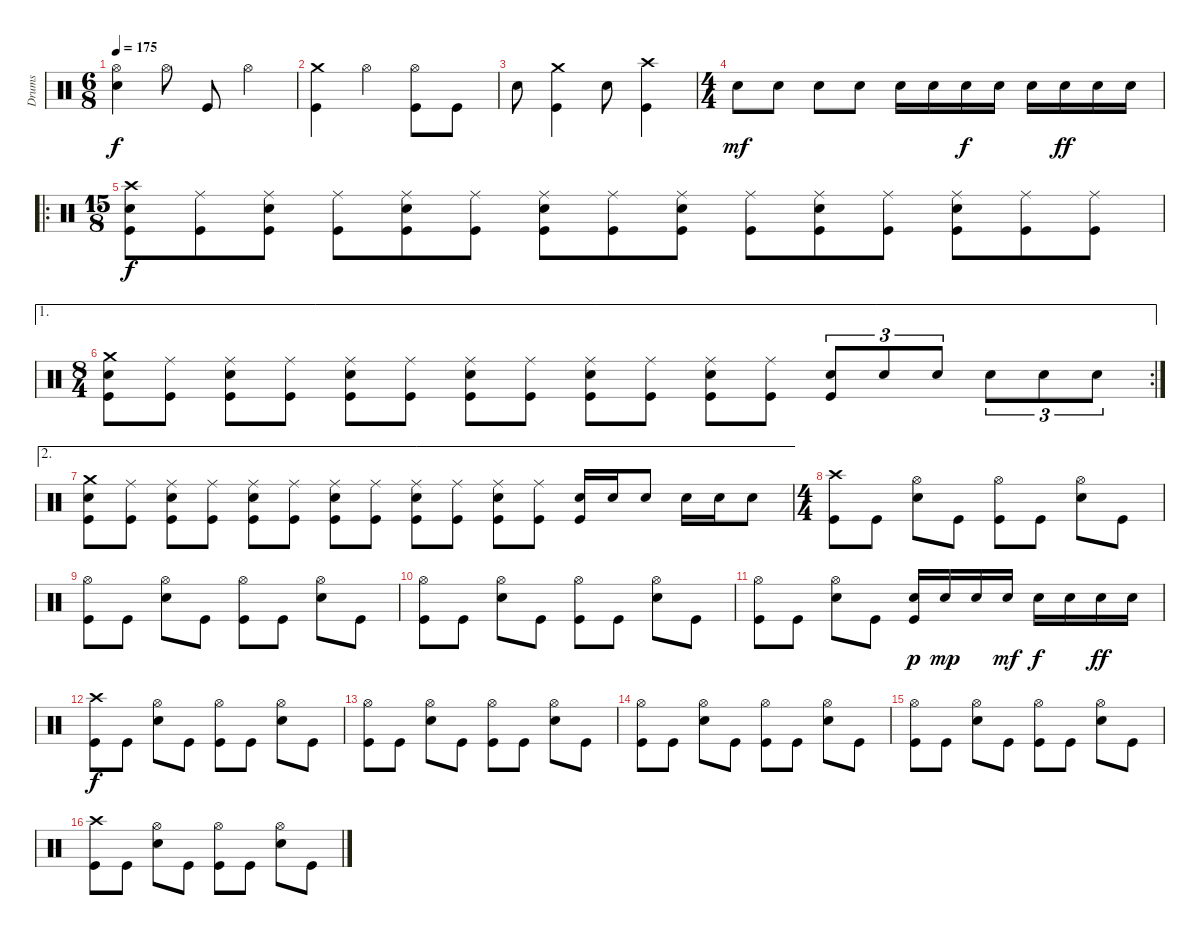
\track ("Drums" "Drums") {instrument percussion}
\staff {score}
\articulation defaults
\ts (6 8)
\tempo 175
\clef neutral
\ks c
("Hi-Hat (open)" "Electric Snare (hit)").4{dy f} "Hi-Hat (open)".8 "Kick (hit)".8 "Hi-Hat (open)".4 |
("Crash medium (hit)" "Kick (hit)").4 "Hi-Hat (open)".4 ("Hi-Hat (open)" "Kick (hit)").8 "Kick (hit)".8 |
"Electric Snare (hit)".8 ("Crash medium (hit)" "Kick (hit)").4 "Electric Snare (hit)".8 ("Crash high (hit)" "Kick (hit)").4 |
\ts (4 4)
"Electric Snare (hit)".8{dy mf} "Electric Snare (hit)".8 "Electric Snare (hit)".8 "Electric Snare (hit)".8 "Electric Snare (hit)".16 "Electric Snare (hit)".16 "Electric Snare (hit)".16{dy f} "Electric Snare (hit)".16 "Electric Snare (hit)".16 "Electric Snare (hit)".16{dy ff} "Electric Snare (hit)".16 "Electric Snare (hit)".16 |
\ro
\ts (15 8)
("Crash high (hit)" "Electric Snare (hit)" "Kick (hit)").8{dy f} ("Ride (middle)" "Kick (hit)").8 ("Ride (middle)" "Electric Snare (hit)" "Kick (hit)").8 ("Ride (middle)" "Kick (hit)").8 ("Ride (middle)" "Electric Snare (hit)" "Kick (hit)").8 ("Ride (middle)" "Kick (hit)").8 ("Ride (middle)" "Electric Snare (hit)" "Kick (hit)").8 ("Ride (middle)" "Kick (hit)").8 ("Ride (middle)" "Electric Snare (hit)" "Kick (hit)").8 ("Ride (middle)" "Kick (hit)").8 ("Ride (middle)" "Electric Snare (hit)" "Kick (hit)").8 ("Ride (middle)" "Kick (hit)").8 ("Ride (middle)" "Electric Snare (hit)" "Kick (hit)").8 ("Ride (middle)" "Kick (hit)").8 ("Ride (middle)" "Kick (hit)").8 |
\ae 1
\rc 2
\ts (8 4)
("Crash medium (hit)" "Electric Snare (hit)" "Kick (hit)").8 ("Ride (middle)" "Kick (hit)").8 ("Ride (middle)" "Electric Snare (hit)" "Kick (hit)").8 ("Ride (middle)" "Kick (hit)").8 ("Ride (middle)" "Electric Snare (hit)" "Kick (hit)").8 ("Ride (middle)" "Kick (hit)").8 ("Ride (middle)" "Electric Snare (hit)" "Kick (hit)").8 ("Ride (middle)" "Kick (hit)").8 ("Ride (middle)" "Electric Snare (hit)" "Kick (hit)").8 ("Ride (middle)" "Kick (hit)").8 ("Ride (middle)" "Electric Snare (hit)" "Kick (hit)").8 ("Ride (middle)" "Kick (hit)").8 ("Electric Snare (hit)" "Kick (hit)").8{tu (3 2)} "Electric Snare (hit)".8{tu (3 2)} "Electric Snare (hit)".8{tu (3 2)} "Electric Snare (hit)".8{tu (3 2)} "Electric Snare (hit)".8{tu (3 2)} "Electric Snare (hit)".8{tu (3 2)} |
\ae 2
("Crash medium (hit)" "Electric Snare (hit)" "Kick (hit)").8 ("Ride (middle)" "Kick (hit)").8 ("Ride (middle)" "Electric Snare (hit)" "Kick (hit)").8 ("Ride (middle)" "Kick (hit)").8 ("Ride (middle)" "Electric Snare (hit)" "Kick (hit)").8 ("Ride (middle)" "Kick (hit)").8 ("Ride (middle)" "Electric Snare (hit)" "Kick (hit)").8 ("Ride (middle)" "Kick (hit)").8 ("Ride (middle)" "Electric Snare (hit)" "Kick (hit)").8 ("Ride (middle)" "Kick (hit)").8 ("Ride (middle)" "Electric Snare (hit)" "Kick (hit)").8 ("Ride (middle)" "Kick (hit)").8 ("Electric Snare (hit)" "Kick (hit)").16 "Electric Snare (hit)".16 "Electric Snare (hit)".8 "Electric Snare (hit)".16 "Electric Snare (hit)".16 "Electric Snare (hit)".8 |
\ts (4 4)
("Crash high (hit)" "Kick (hit)").8 "Kick (hit)".8 ("Hi-Hat (open)" "Electric Snare (hit)").8 "Kick (hit)".8 ("Hi-Hat (open)" "Kick (hit)").8 "Kick (hit)".8 ("Hi-Hat (open)" "Electric Snare (hit)").8 "Kick (hit)".8 |
("Hi-Hat (open)" "Kick (hit)").8 "Kick (hit)".8 ("Hi-Hat (open)" "Electric Snare (hit)").8 "Kick (hit)".8 ("Hi-Hat (open)" "Kick (hit)").8 "Kick (hit)".8 ("Hi-Hat (open)" "Electric Snare (hit)").8 "Kick (hit)".8 |
("Hi-Hat (open)" "Kick (hit)").8 "Kick (hit)".8 ("Hi-Hat (open)" "Electric Snare (hit)").8 "Kick (hit)".8 ("Hi-Hat (open)" "Kick (hit)").8 "Kick (hit)".8 ("Hi-Hat (open)" "Electric Snare (hit)").8 "Kick (hit)".8 |
("Hi-Hat (open)" "Kick (hit)").8 "Kick (hit)".8 ("Hi-Hat (open)" "Electric Snare (hit)").8 "Kick (hit)".8 ("Electric Snare (hit)" "Kick (hit)").16{dy p} "Electric Snare (hit)".16{dy mp} "Electric Snare (hit)".16 "Electric Snare (hit)".16{dy mf} "Electric Snare (hit)".16{dy f} "Electric Snare (hit)".16 "Electric Snare (hit)".16{dy ff} "Electric Snare (hit)".16 |
("Crash high (hit)" "Kick (hit)").8{dy f} "Kick (hit)".8 ("Hi-Hat (open)" "Electric Snare (hit)").8 "Kick (hit)".8 ("Hi-Hat (open)" "Kick (hit)").8 "Kick (hit)".8 ("Hi-Hat (open)" "Electric Snare (hit)").8 "Kick (hit)".8 |
("Hi-Hat (open)" "Kick (hit)").8 "Kick (hit)".8 ("Hi-Hat (open)" "Electric Snare (hit)").8 "Kick (hit)".8 ("Hi-Hat (open)" "Kick (hit)").8 "Kick (hit)".8 ("Hi-Hat (open)" "Electric Snare (hit)").8 "Kick (hit)".8 |
("Hi-Hat (open)" "Kick (hit)").8 "Kick (hit)".8 ("Hi-Hat (open)" "Electric Snare (hit)").8 "Kick (hit)".8 ("Hi-Hat (open)" "Kick (hit)").8 "Kick (hit)".8 ("Hi-Hat (open)" "Electric Snare (hit)").8 "Kick (hit)".8 |
("Hi-Hat (open)" "Kick (hit)").8 "Kick (hit)".8 ("Hi-Hat (open)" "Electric Snare (hit)").8 "Kick (hit)".8 ("Hi-Hat (open)" "Kick (hit)").8 "Kick (hit)".8 ("Hi-Hat (open)" "Electric Snare (hit)").8 "Kick (hit)".8 |
("Crash high (hit)" "Kick (hit)").8 "Kick (hit)".8 ("Hi-Hat (open)" "Electric Snare (hit)").8 "Kick (hit)".8 ("Hi-Hat (open)" "Kick (hit)").8 "Kick (hit)".8 ("Hi-Hat (open)" "Electric Snare (hit)").8 "Kick (hit)".8
